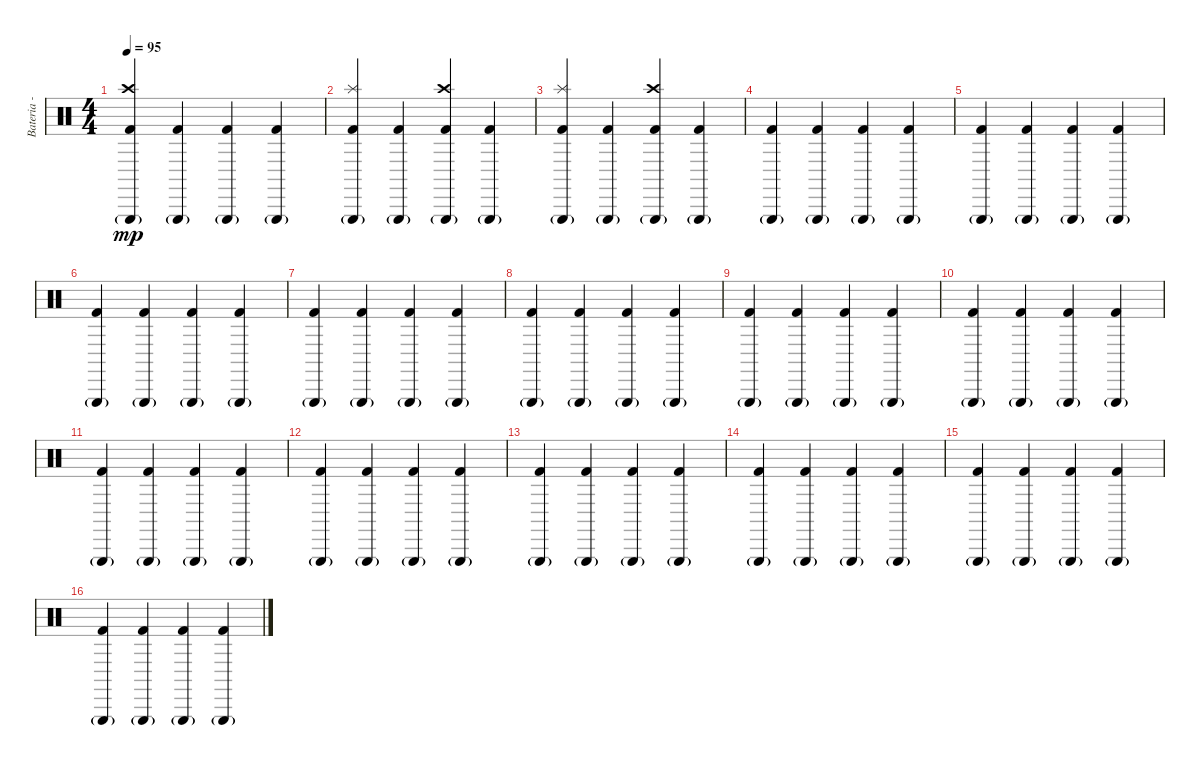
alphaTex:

\track ("Bateria - Alfonso André" "Bateria - ") {instrument percussion}
\staff {score}
\articulation defaults
\ts (4 4)
\tempo 95
\clef neutral
\ks c
("Triangle (hit)"{g} "Kick (hit) 2" "Crash high (hit)").4{dy mp} ("Triangle (hit)"{g} "Kick (hit) 2").4 ("Triangle (hit)"{g} "Kick (hit) 2").4 ("Triangle (hit)"{g} "Kick (hit) 2").4 |
("Triangle (hit)"{g} "Kick (hit) 2" "Splash (hit)").4 ("Triangle (hit)"{g} "Kick (hit) 2").4 ("Triangle (hit)"{g} "Kick (hit) 2" "Crash high (hit)").4 ("Triangle (hit)"{g} "Kick (hit) 2").4 |
("Triangle (hit)"{g} "Kick (hit) 2" "Splash (hit)").4 ("Triangle (hit)"{g} "Kick (hit) 2").4 ("Triangle (hit)"{g} "Kick (hit) 2" "Crash high (hit)").4 ("Triangle (hit)"{g} "Kick (hit) 2").4 |
("Triangle (hit)"{g} "Kick (hit) 2").4 ("Triangle (hit)"{g} "Kick (hit) 2").4 ("Triangle (hit)"{g} "Kick (hit) 2").4 ("Triangle (hit)"{g} "Kick (hit) 2").4 |
("Triangle (hit)"{g} "Kick (hit) 2").4 ("Triangle (hit)"{g} "Kick (hit) 2").4 ("Triangle (hit)"{g} "Kick (hit) 2").4 ("Triangle (hit)"{g} "Kick (hit) 2").4 |
("Triangle (hit)"{g} "Kick (hit) 2").4 ("Triangle (hit)"{g} "Kick (hit) 2").4 ("Triangle (hit)"{g} "Kick (hit) 2").4 ("Triangle (hit)"{g} "Kick (hit) 2").4 |
("Triangle (hit)"{g} "Kick (hit) 2").4 ("Triangle (hit)"{g} "Kick (hit) 2").4 ("Triangle (hit)"{g} "Kick (hit) 2").4 ("Triangle (hit)"{g} "Kick (hit) 2").4 |
("Triangle (hit)"{g} "Kick (hit) 2").4 ("Triangle (hit)"{g} "Kick (hit) 2").4 ("Triangle (hit)"{g} "Kick (hit) 2").4 ("Triangle (hit)"{g} "Kick (hit) 2").4 |
("Triangle (hit)"{g} "Kick (hit) 2").4 ("Triangle (hit)"{g} "Kick (hit) 2").4 ("Triangle (hit)"{g} "Kick (hit) 2").4 ("Triangle (hit)"{g} "Kick (hit) 2").4 |
("Triangle (hit)"{g} "Kick (hit) 2").4 ("Triangle (hit)"{g} "Kick (hit) 2").4 ("Triangle (hit)"{g} "Kick (hit) 2").4 ("Triangle (hit)"{g} "Kick (hit) 2").4 |
("Triangle (hit)"{g} "Kick (hit) 2").4 ("Triangle (hit)"{g} "Kick (hit) 2").4 ("Triangle (hit)"{g} "Kick (hit) 2").4 ("Triangle (hit)"{g} "Kick (hit) 2").4 |
("Triangle (hit)"{g} "Kick (hit) 2").4 ("Triangle (hit)"{g} "Kick (hit) 2").4 ("Triangle (hit)"{g} "Kick (hit) 2").4 ("Triangle (hit)"{g} "Kick (hit) 2").4 |
("Triangle (hit)"{g} "Kick (hit) 2").4 ("Triangle (hit)"{g} "Kick (hit) 2").4 ("Triangle (hit)"{g} "Kick (hit) 2").4 ("Triangle (hit)"{g} "Kick (hit) 2").4 |
("Triangle (hit)"{g} "Kick (hit) 2").4 ("Triangle (hit)"{g} "Kick (hit) 2").4 ("Triangle (hit)"{g} "Kick (hit) 2").4 ("Triangle (hit)"{g} "Kick (hit) 2").4 |
("Triangle (hit)"{g} "Kick (hit) 2").4 ("Triangle (hit)"{g} "Kick (hit) 2").4 ("Triangle (hit)"{g} "Kick (hit) 2").4 ("Triangle (hit)"{g} "Kick (hit) 2").4 |
("Triangle (hit)"{g} "Kick (hit) 2").4 ("Triangle (hit)"{g} "Kick (hit) 2").4 ("Triangle (hit)"{g} "Kick (hit) 2").4 ("Triangle (hit)"{g} "Kick (hit) 2").4
